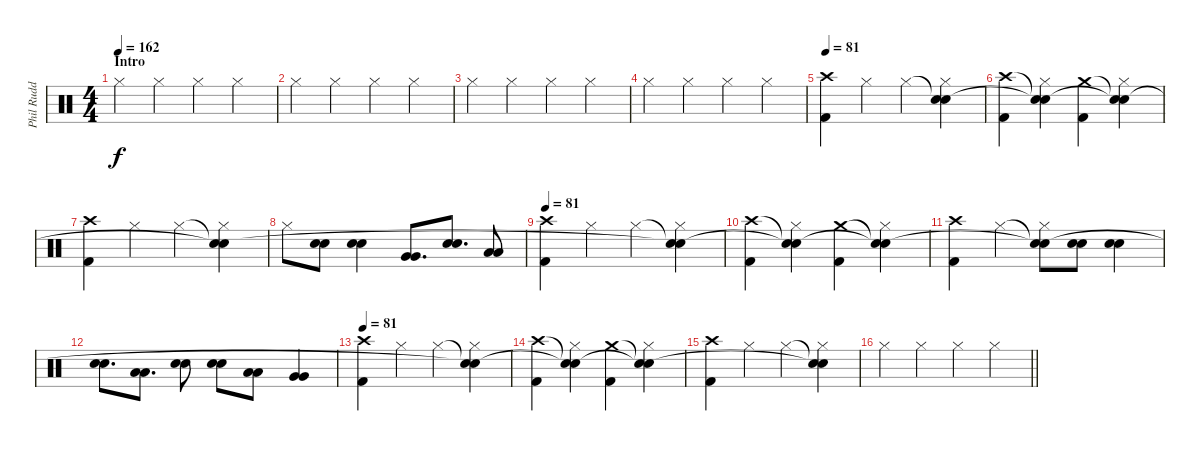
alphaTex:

\track ("Phil Rudd" "Phil Rudd") {instrument percussion}
\staff {score}
\articulation defaults
\ts (4 4)
\section ("" "Intro")
\tempo 162
\tempo 81
\tempo 162
\clef neutral
\ks c "Hi-Hat (closed)".4{dy f} "Hi-Hat (closed)".4 "Hi-Hat (closed)".4 "Hi-Hat (closed)".4
|
"Hi-Hat (closed)".4 "Hi-Hat (closed)".4 "Hi-Hat (closed)".4 "Hi-Hat (closed)".4 |
"Hi-Hat (closed)".4 "Hi-Hat (closed)".4 "Hi-Hat (closed)".4 "Hi-Hat (closed)".4 |
"Hi-Hat (closed)".4 "Hi-Hat (closed)".4 "Hi-Hat (closed)".4 "Hi-Hat (closed)".4 |
\tempo 81
("Crash high (hit)" "Kick (hit) 2").4 "Hi-Hat (closed)".4 "Hi-Hat (closed)".4 ("Snare (hit)"{t} "Hi-Hat (closed)" "Snare (hit)").4 |
("Crash high (hit)" "Kick (hit) 2").4 ("Snare (hit)"{t} "Hi-Hat (closed)" "Snare (hit)"{t}).4 ("Crash medium (hit)" "Kick (hit) 2").4 ("Snare (hit)"{t} "Hi-Hat (closed)" "Snare (hit)"{t}).4 |
("Crash high (hit)" "Kick (hit) 2").4 "Hi-Hat (closed)".4 "Hi-Hat (closed)".4 ("Snare (hit)"{t} "Hi-Hat (closed)" "Snare (hit)"{t}).4 |
"Hi-Hat (closed)".8 ("Snare (hit) 2" "Snare (hit) 2").8 ("Snare (hit) 2" "Snare (hit) 2").4 ("Very Low Tom (hit)" "Very Low Tom (hit)").8{d} ("Snare (hit) 2" "Snare (hit) 2").8{d} ("Low Tom (hit)" "Low Tom (hit)").8 |
\tempo 81
("Crash high (hit)" "Kick (hit) 2").4 "Hi-Hat (closed)".4 "Hi-Hat (closed)".4 ("Snare (hit)"{t} "Hi-Hat (closed)" "Snare (hit)"{t}).4 |
("Crash high (hit)" "Kick (hit) 2").4 ("Snare (hit)"{t} "Hi-Hat (closed)" "Snare (hit)"{t}).4 ("Crash medium (hit)" "Kick (hit) 2").4 ("Snare (hit)"{t} "Hi-Hat (closed)" "Snare (hit)"{t}).4 |
("Crash high (hit)" "Kick (hit) 2").4 "Hi-Hat (closed)".4 ("Snare (hit)"{t} "Hi-Hat (closed)" "Snare (hit)"{t}).8 ("Snare (hit) 2" "Snare (hit) 2").8 ("Snare (hit) 2" "Snare (hit) 2").4 |
("Snare (hit) 2" "Snare (hit) 2").8{d} ("Low Tom (hit)" "Low Tom (hit)").8{d} ("Snare (hit) 2" "Snare (hit) 2").8 ("Snare (hit) 2" "Snare (hit) 2").8 ("Low Tom (hit)" "Low Tom (hit)").8 ("Very Low Tom (hit)" "Very Low Tom (hit)").4 |
\tempo 81
("Crash high (hit)" "Kick (hit) 2").4 "Hi-Hat (closed)".4 "Hi-Hat (closed)".4 ("Snare (hit)"{t} "Hi-Hat (closed)" "Snare (hit)"{t}).4 |
("Crash high (hit)" "Kick (hit) 2").4 ("Snare (hit)"{t} "Hi-Hat (closed)" "Snare (hit)"{t}).4 ("Crash medium (hit)" "Kick (hit) 2").4 ("Snare (hit)"{t} "Hi-Hat (closed)" "Snare (hit)"{t}).4 |
("Crash high (hit)" "Kick (hit) 2").4 "Hi-Hat (closed)".4 "Hi-Hat (closed)".4 ("Snare (hit)"{t} "Hi-Hat (closed)" "Snare (hit)"{t}).4 |
\barLineRight lightlight "Hi-Hat (closed)".4 "Hi-Hat (closed)".4 "Hi-Hat (closed)".4 "Hi-Hat (closed)".4
